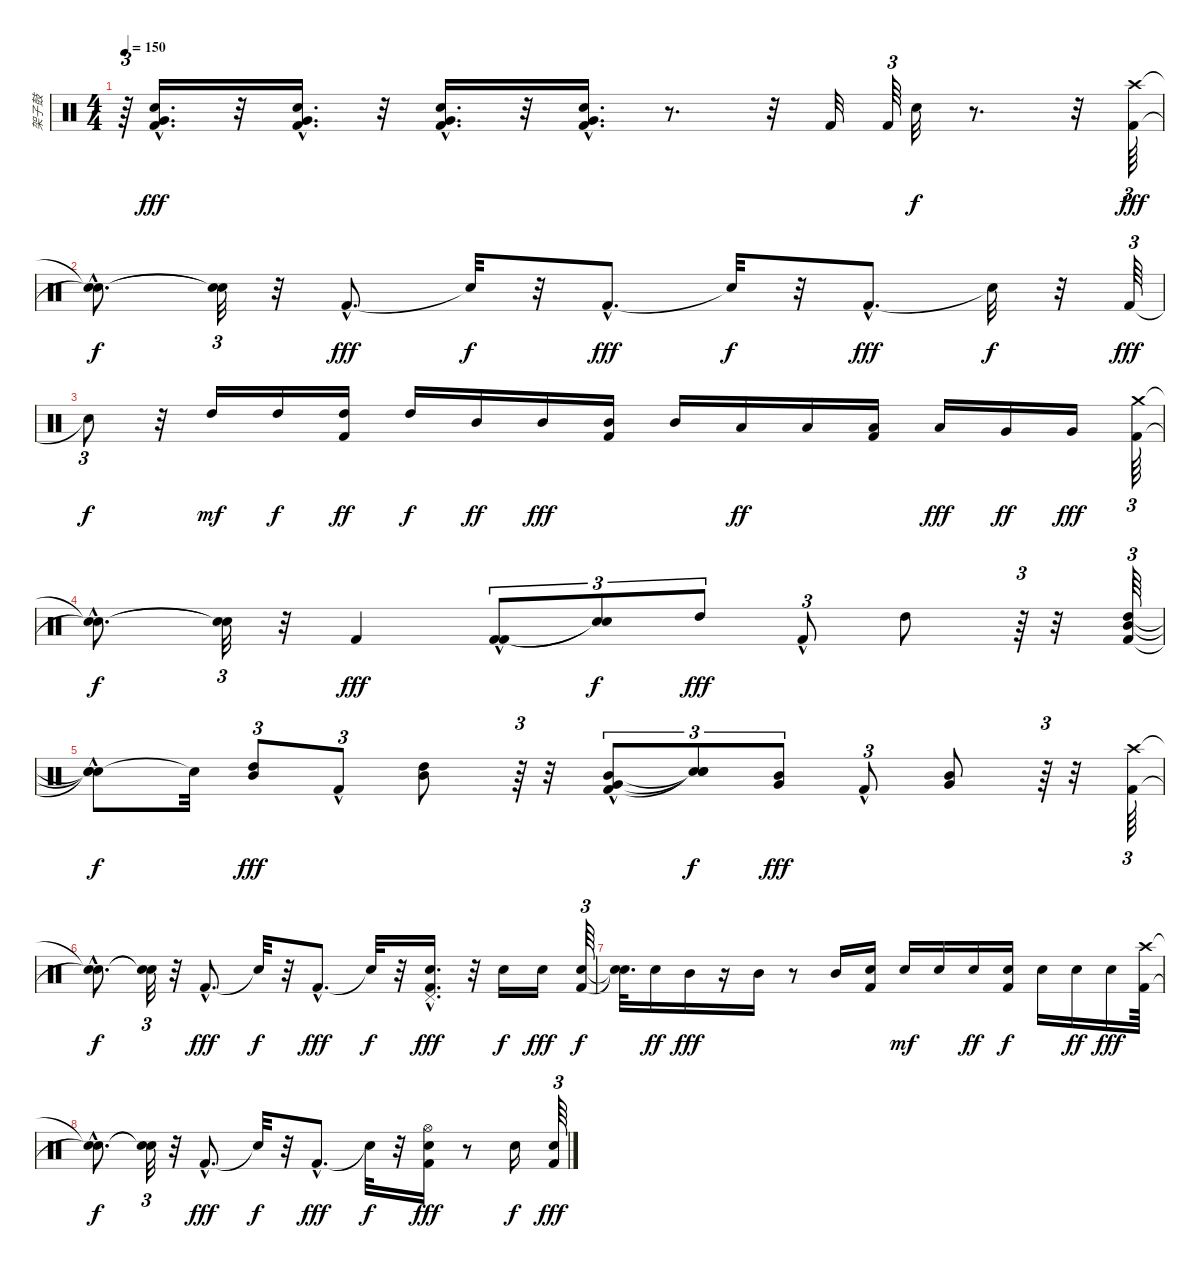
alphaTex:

\track ("架子鼓" "架子鼓") {instrument percussion}
\staff {score}
\articulation defaults
\ts (4 4)
\tempo 150
\clef neutral
\ks c
r.64{tu (3 2) dy fff} ("Snare (hit) 2"{hac} "Very Low Tom (hit)"{hac} "Kick (hit) 2"{hac}).16{d} r.32 ("Very Low Tom (hit)"{hac} "Kick (hit) 2"{hac} "Snare (hit) 2"{hac}).16{d} r.32 ("Very Low Tom (hit)"{hac} "Snare (hit) 2"{hac} "Kick (hit) 2"{hac}).16{d} r.32 ("Very Low Tom (hit)"{hac} "Snare (hit) 2"{hac} "Kick (hit) 2"{hac}).16{d} r.8{d} r.32 "Kick (hit) 2".32 "Kick (hit) 2".64{tu (3 2)} "Electric Snare (hit)".32{dy f} r.8{d} r.32 ("Crash high (hit)" "Kick (hit) 2").64{tu (3 2) dy fff} |
("Snare (hit)"{hac t} "Snare (hit)"{hac t}).8{d dy f} ("Snare (hit)"{t} "Snare (hit)"{t}).32{tu (3 2)} r.32 "Kick (hit) 2"{hac}.8{d dy fff} "Snare (hit)"{t}.32{dy f} r.32 "Kick (hit) 2"{hac}.8{d dy fff} "Snare (hit)"{t}.32{dy f} r.32 "Kick (hit) 2"{hac}.8{d dy fff} "Snare (hit)"{t}.32{dy f} r.32 "Kick (hit) 2".64{tu (3 2) dy fff} |
"Snare (hit)"{t}.8{tu (3 2) dy f} r.32 "High Tom (hit)".16{dy mf} "High Tom (hit)".16{dy f} ("Kick (hit) 2" "High Tom (hit)").16{dy ff} "High Tom (hit)".16{dy f} "Mid Tom (hit)".16{dy ff} "Mid Tom (hit)".16{dy fff} ("Mid Tom (hit)" "Kick (hit) 2").16 "Mid Tom (hit)".16 "Low Tom (hit)".16{dy ff} "Low Tom (hit)".16 ("Low Tom (hit)" "Kick (hit) 2").16 "Low Tom (hit)".16{dy fff} "Very Low Tom (hit)".16{dy ff} "Very Low Tom (hit)".16{dy fff} ("Crash medium (hit)" "Kick (hit) 2").64{tu (3 2)} |
("Snare (hit)"{hac t} "Snare (hit)"{hac t}).8{d dy f} ("Snare (hit)"{t} "Snare (hit)"{t}).32{tu (3 2)} r.32 "Kick (hit) 2".4{dy fff} ("Kick (hit) 2"{hac} "Kick (hit) 2"{hac}).8{tu (3 2)} ("Snare (hit)"{t} "Snare (hit)"{t}).8{tu (3 2) dy f} "High Tom (hit)".8{tu (3 2) dy fff} "Kick (hit) 2"{hac}.8{tu (3 2)} "High Tom (hit)".8 r.64{tu (3 2)} r.32 ("Mid Tom (hit)" "High Tom (hit)" "Kick (hit) 2").64{tu (3 2)} |
("Snare (hit)"{hac t} "Snare (hit)"{hac t} "Snare (hit)"{t}).8{dy f} "Snare (hit)"{t}.32 ("Mid Tom (hit)" "High Tom (hit)").8{tu (3 2) dy fff} "Kick (hit) 2"{hac}.8{tu (3 2)} ("Mid Tom (hit)" "High Tom (hit)").8 r.64{tu (3 2)} r.32 ("Mid Tom (hit)" "Very Low Tom (hit)" "Kick (hit) 2"{hac}).8{tu (3 2)} ("Snare (hit)"{t} "Snare (hit)"{t} "Snare (hit)"{t}).8{tu (3 2) dy f} ("Very Low Tom (hit)" "Mid Tom (hit)").8{tu (3 2) dy fff} "Kick (hit) 2"{hac}.8{tu (3 2)} ("Mid Tom (hit)" "Very Low Tom (hit)").8 r.64{tu (3 2)} r.32 ("Crash high (hit)" "Kick (hit) 2").64{tu (3 2)} |
("Snare (hit)"{hac t} "Snare (hit)"{hac t}).8{d dy f} ("Snare (hit)"{t} "Snare (hit)"{t}).32{tu (3 2)} r.32 "Kick (hit) 2"{hac}.8{d dy fff} "Snare (hit)"{t}.32{dy f} r.32 "Kick (hit) 2"{hac}.8{d dy fff} "Snare (hit)"{t}.32{dy f} r.32 ("Pedal Hi-Hat (hit)"{hac} "Snare (hit) 2"{hac} "Kick (hit) 2"{hac}).16{d dy fff} r.32 "Snare (hit) 2".16{dy f} "Snare (hit) 2".16{dy fff} ("Kick (hit) 2" "Snare (hit) 2").64{tu (3 2) dy f} |
("Snare (hit)"{t} "Snare (hit)"{t}).32{d} "Snare (hit) 2".16{dy ff} "Mid Tom (hit)".16{dy fff} r.16 "Mid Tom (hit)".16 r.8 "Mid Tom (hit)".16 ("Snare (hit) 2" "Kick (hit) 2").16 "Snare (hit) 2".16{dy mf} "Snare (hit) 2".16 "Snare (hit) 2".16{dy ff} ("Snare (hit) 2" "Kick (hit) 2").16{dy f} "Snare (hit) 2".16 "Snare (hit) 2".16{dy ff} "Snare (hit) 2".16{dy fff} ("Crash high (hit)" "Kick (hit) 2").64 |
("Snare (hit)"{hac t} "Snare (hit)"{hac t}).8{d dy f} ("Snare (hit)"{t} "Snare (hit)"{t}).32{tu (3 2)} r.32 "Kick (hit) 2"{hac}.8{d dy fff} "Snare (hit)"{t}.32{dy f} r.32 "Kick (hit) 2"{hac}.8{d dy fff} "Snare (hit)"{t}.32{dy f} r.32 ("Snare (hit) 2" "Hi-Hat (open)" "Kick (hit) 2").16{dy fff} r.8 "Snare (hit) 2".16{dy f} ("Snare (hit) 2" "Kick (hit) 2").64{tu (3 2) dy fff}
